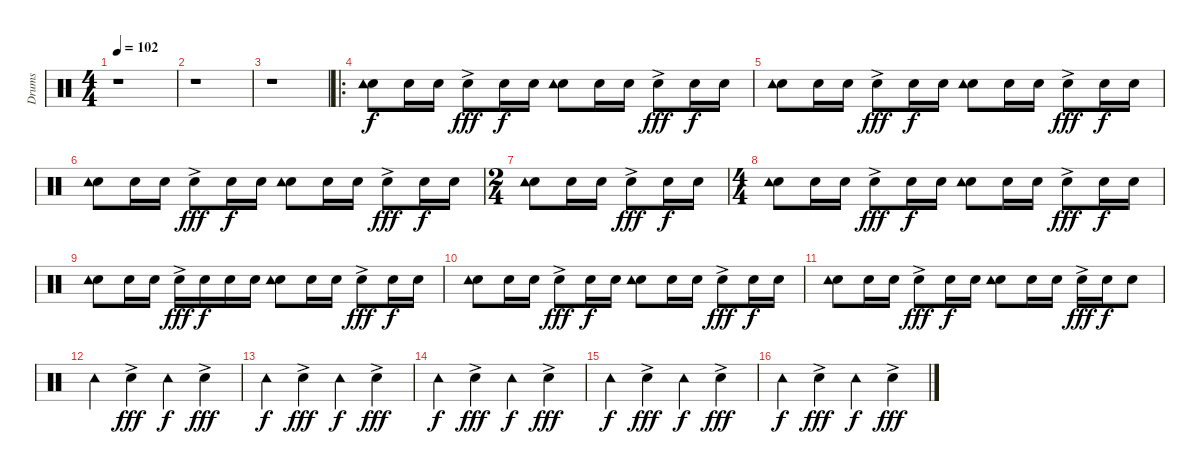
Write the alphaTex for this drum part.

\track ("Drums" "Drums") {instrument percussion}
\staff {score}
\articulation defaults
\ts (4 4)
\tempo 102
\clef neutral
\ks c
r.1{dy f} |
r.1 |
r.1 |
\ro
("Snare (hit) 2" "Tambourine (hit)").8 "Snare (hit) 2".16 "Snare (hit) 2".16 "Snare (hit) 2"{ac}.8{dy fff} "Snare (hit) 2".16{dy f} "Snare (hit) 2".16 ("Snare (hit) 2" "Tambourine (hit)").8 "Snare (hit) 2".16 "Snare (hit) 2".16 "Snare (hit) 2"{ac}.8{dy fff} "Snare (hit) 2".16{dy f} "Snare (hit) 2".16 |
("Snare (hit) 2" "Tambourine (hit)").8 "Snare (hit) 2".16 "Snare (hit) 2".16 "Snare (hit) 2"{ac}.8{dy fff} "Snare (hit) 2".16{dy f} "Snare (hit) 2".16 ("Snare (hit) 2" "Tambourine (hit)").8 "Snare (hit) 2".16 "Snare (hit) 2".16 "Snare (hit) 2"{ac}.8{dy fff} "Snare (hit) 2".16{dy f} "Snare (hit) 2".16 |
("Snare (hit) 2" "Tambourine (hit)").8 "Snare (hit) 2".16 "Snare (hit) 2".16 "Snare (hit) 2"{ac}.8{dy fff} "Snare (hit) 2".16{dy f} "Snare (hit) 2".16 ("Snare (hit) 2" "Tambourine (hit)").8 "Snare (hit) 2".16 "Snare (hit) 2".16 "Snare (hit) 2"{ac}.8{dy fff} "Snare (hit) 2".16{dy f} "Snare (hit) 2".16 |
\ts (2 4)
("Snare (hit) 2" "Tambourine (hit)").8 "Snare (hit) 2".16 "Snare (hit) 2".16 "Snare (hit) 2"{ac}.8{dy fff} "Snare (hit) 2".16{dy f} "Snare (hit) 2".16 |
\ts (4 4)
("Snare (hit) 2" "Tambourine (hit)").8 "Snare (hit) 2".16 "Snare (hit) 2".16 "Snare (hit) 2"{ac}.8{dy fff} "Snare (hit) 2".16{dy f} "Snare (hit) 2".16 ("Snare (hit) 2" "Tambourine (hit)").8 "Snare (hit) 2".16 "Snare (hit) 2".16 "Snare (hit) 2"{ac}.8{dy fff} "Snare (hit) 2".16{dy f} "Snare (hit) 2".16 |
("Snare (hit) 2" "Tambourine (hit)").8 "Snare (hit) 2".16 "Snare (hit) 2".16 "Snare (hit) 2"{ac}.16{dy fff} "Snare (hit) 2".16{dy f} "Snare (hit) 2".16 "Snare (hit) 2".16 ("Snare (hit) 2" "Tambourine (hit)").8 "Snare (hit) 2".16 "Snare (hit) 2".16 "Snare (hit) 2"{ac}.8{dy fff} "Snare (hit) 2".16{dy f} "Snare (hit) 2".16 |
("Snare (hit) 2" "Tambourine (hit)").8 "Snare (hit) 2".16 "Snare (hit) 2".16 "Snare (hit) 2"{ac}.8{dy fff} "Snare (hit) 2".16{dy f} "Snare (hit) 2".16 ("Snare (hit) 2" "Tambourine (hit)").8 "Snare (hit) 2".16 "Snare (hit) 2".16 "Snare (hit) 2"{ac}.8{dy fff} "Snare (hit) 2".16{dy f} "Snare (hit) 2".16 |
("Snare (hit) 2" "Tambourine (hit)").8 "Snare (hit) 2".16 "Snare (hit) 2".16 "Snare (hit) 2"{ac}.8{dy fff} "Snare (hit) 2".16{dy f} "Snare (hit) 2".16 ("Snare (hit) 2" "Tambourine (hit)").8 "Snare (hit) 2".16 "Snare (hit) 2".16 "Snare (hit) 2"{ac}.16{dy fff} "Snare (hit) 2".16{dy f} "Snare (hit) 2".8 |
"Tambourine (hit)".4 "Snare (hit) 2"{ac}.4{dy fff} "Tambourine (hit)".4{dy f} "Snare (hit) 2"{ac}.4{dy fff} |
"Tambourine (hit)".4{dy f} "Snare (hit) 2"{ac}.4{dy fff} "Tambourine (hit)".4{dy f} "Snare (hit) 2"{ac}.4{dy fff} |
"Tambourine (hit)".4{dy f} "Snare (hit) 2"{ac}.4{dy fff} "Tambourine (hit)".4{dy f} "Snare (hit) 2"{ac}.4{dy fff} |
"Tambourine (hit)".4{dy f} "Snare (hit) 2"{ac}.4{dy fff} "Tambourine (hit)".4{dy f} "Snare (hit) 2"{ac}.4{dy fff} |
"Tambourine (hit)".4{dy f} "Snare (hit) 2"{ac}.4{dy fff} "Tambourine (hit)".4{dy f} "Snare (hit) 2"{ac}.4{dy fff}
